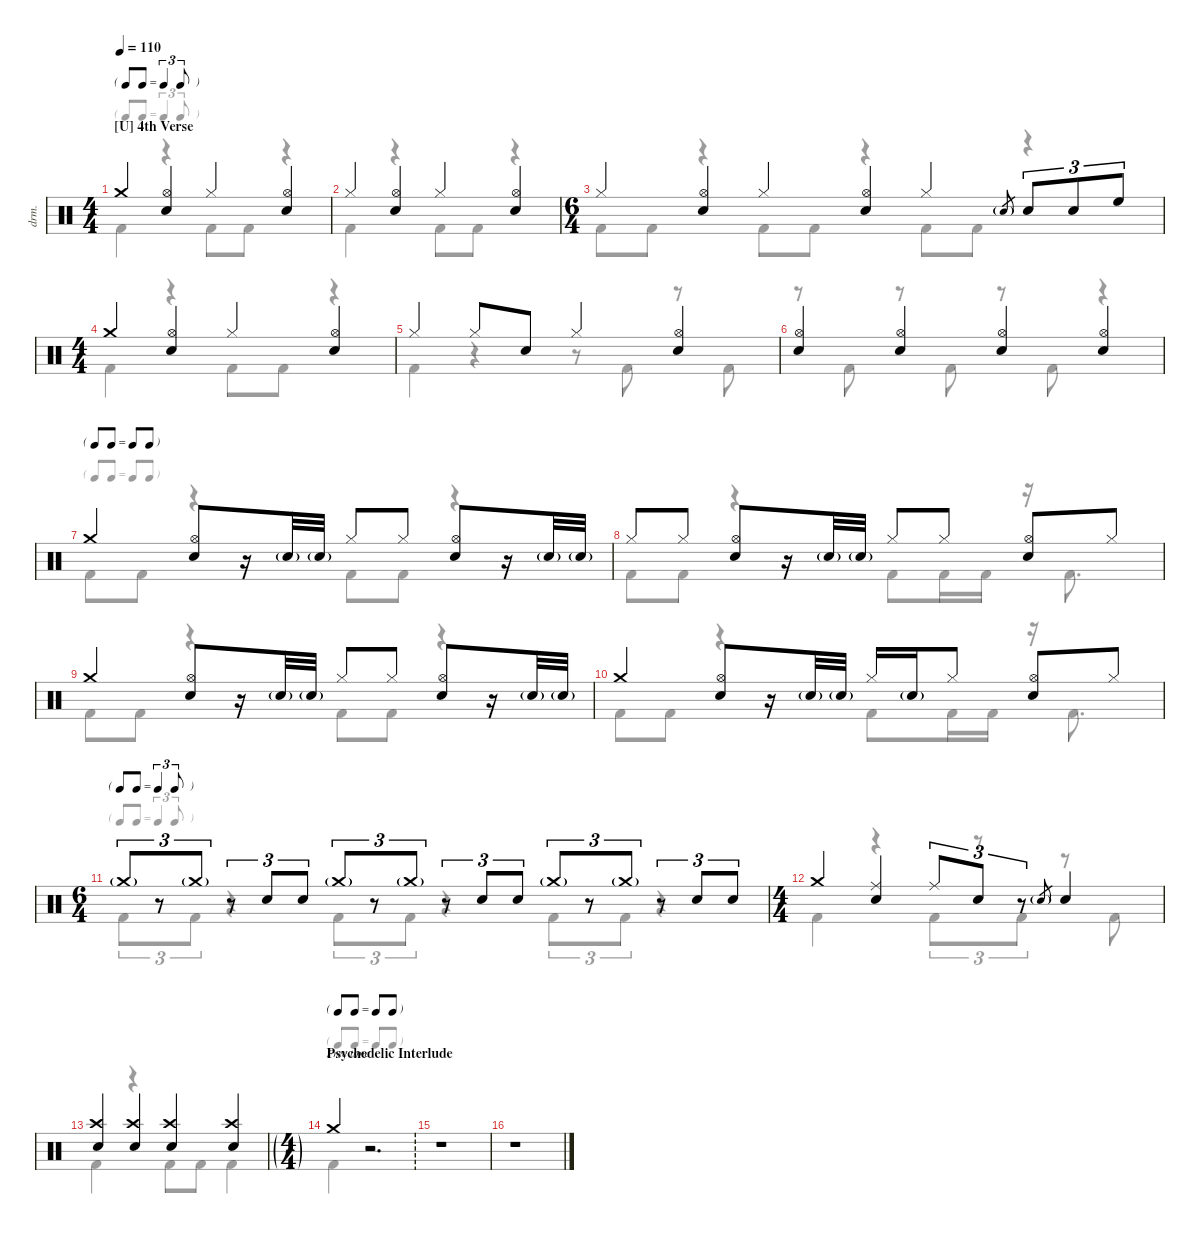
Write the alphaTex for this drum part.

\defaultSystemsLayout 4
\hideDynamics
\bracketExtendMode nobrackets
\track ("Drums" "drm.") {instrument percussion}
\staff {score}
\articulation defaults
\voice
\ts (4 4)
\tf triplet8th
\section ("U" "4th Verse")
\tempo 110
\clef neutral
\ks c "Crash medium (hit)".4{dy mf}
("Hi-Hat (open)" "Snare (hit) 2").4 "Hi-Hat (closed)".4 ("Hi-Hat (open)" "Snare (hit) 2").4 |
"Hi-Hat (closed)".4 ("Hi-Hat (open)" "Snare (hit) 2").4 "Hi-Hat (closed)".4 ("Hi-Hat (open)" "Snare (hit) 2").4 |
\ts (6 4)
\beaming (8 6 6)
\scale
0.512982 "Hi-Hat (closed)".4 ("Hi-Hat (open)" "Snare (hit) 2").4 "Hi-Hat (closed)".4 ("Hi-Hat (open)" "Snare (hit) 2").4 "Hi-Hat (closed)".4 "Snare (hit) 2"{g}.8{gr} "Snare (hit) 2".8{tu (3 2)} "Snare (hit) 2".8{tu (3 2)} "High Floor Tom (hit)".8{tu (3 2)} |
\ts (4 4)
\beaming (8 2 2 2 2)
\scale
0.487018 "Crash medium (hit)".4 ("Hi-Hat (open)" "Snare (hit) 2").4 "Hi-Hat (closed)".4 ("Hi-Hat (open)" "Snare (hit) 2").4 |
"Hi-Hat (closed)".4 "Hi-Hat (closed)".8 "Snare (hit) 2".8 "Hi-Hat (closed)".4 ("Hi-Hat (open)" "Snare (hit) 2").4 |
("Snare (hit) 2" "Hi-Hat (open)").4 ("Hi-Hat (open)" "Snare (hit) 2").4 ("Hi-Hat (open)" "Snare (hit) 2").4 ("Hi-Hat (open)" "Snare (hit) 2").4 |
\tf none "Crash medium (hit)".4
("Hi-Hat (open)" "Snare (hit) 2").8 r.16 "Snare (hit) 2"{g}.32 "Snare (hit) 2"{g}.32 "Hi-Hat (closed)".8 "Hi-Hat (closed)".8 ("Hi-Hat (open)" "Snare (hit) 2").8 r.16 "Snare (hit) 2"{g}.32 "Snare (hit) 2"{g}.32 |
"Hi-Hat (closed)".8 "Hi-Hat (closed)".8 ("Hi-Hat (open)" "Snare (hit) 2").8 r.16 "Snare (hit) 2"{g}.32 "Snare (hit) 2"{g}.32 "Hi-Hat (closed)".8 "Hi-Hat (closed)".8 ("Hi-Hat (open)" "Snare (hit) 2").8 "Hi-Hat (closed)".8 |
"Crash medium (hit)".4 ("Hi-Hat (open)" "Snare (hit) 2").8 r.16 "Snare (hit) 2"{g}.32 "Snare (hit) 2"{g}.32 "Hi-Hat (closed)".8 "Hi-Hat (closed)".8 ("Hi-Hat (open)" "Snare (hit) 2").8 r.16 "Snare (hit) 2"{g}.32 "Snare (hit) 2"{g}.32 |
"Crash medium (hit)".4 ("Hi-Hat (open)" "Snare (hit) 2").8 r.16 "Snare (hit) 2"{g}.32 "Snare (hit) 2"{g}.32 "Hi-Hat (closed)".16 "Snare (hit) 2"{g}.16 "Hi-Hat (closed)".8 ("Hi-Hat (open)" "Snare (hit) 2").8 "Hi-Hat (closed)".8 |
\ts (6 4)
\beaming (8 6 6)
\tf triplet8th "Crash medium (hit)"{g}.8{tu (3 2)}
r.8{tu (3 2)} "Crash medium (hit)"{g}.8{tu (3 2)} r.8{tu (3 2)} "Snare (hit) 2".8{tu (3 2)} "Snare (hit) 2".8{tu (3 2)} "Crash medium (hit)"{g}.8{tu (3 2)} r.8{tu (3 2)} "Crash medium (hit)"{g}.8{tu (3 2)} r.8{tu (3 2)} "Snare (hit) 2".8{tu (3 2)} "Snare (hit) 2".8{tu (3 2)} "Crash medium (hit)"{g}.8{tu (3 2)} r.8{tu (3 2)} "Crash medium (hit)"{g}.8{tu (3 2)} r.8{tu (3 2)} "Snare (hit) 2".8{tu (3 2)} "Snare (hit) 2".8{tu (3 2)} |
\ts (4 4)
\beaming (8 2 2 2 2)
"Crash medium (hit)".4 ("Ride (middle)" "Snare (hit) 2").4 "Ride (middle)".8{tu (3 2)} "Snare (hit) 2".8{tu (3 2)} r.8{tu (3 2)} "Snare (hit) 2"{g}.8{gr} "Snare (hit) 2".4 |
("Crash high (hit)" "Snare (hit) 2").4 ("Crash high (hit)" "Snare (hit) 2").4 ("Crash high (hit)" "Snare (hit) 2").4 ("Crash high (hit)" "Snare (hit) 2").4 |
\tf none
\ft
\section ("" "Psychedelic Interlude")
"Crash medium (hit)".4 r.2{d} |
r.1 |
r.1
\voice
\clef neutral
\ottava regular
\simile none
\ks c "Kick (hit) 2".4{dy mf}
r.4 "Kick (hit) 2".8 "Kick (hit) 2".8 r.4 |
"Kick (hit) 2".4 r.4 "Kick (hit) 2".8 "Kick (hit) 2".8 r.4 |
\scale
0.512982 "Kick (hit) 2".8 "Kick (hit) 2".8 r.4 "Kick (hit) 2".8 "Kick (hit) 2".8 r.4 "Kick (hit) 2".8 "Kick (hit) 2".8 r.4 |
\scale
0.487018 "Kick (hit) 2".4 r.4 "Kick (hit) 2".8 "Kick (hit) 2".8 r.4 |
"Kick (hit) 2".4 r.4 r.8 "Kick (hit) 2".8 r.8 "Kick (hit) 2".8 |
r.8 "Kick (hit) 2".8 r.8 "Kick (hit) 2".8 r.8 "Kick (hit) 2".8 r.4 |
"Kick (hit) 2".8 "Kick (hit) 2".8 r.4 "Kick (hit) 2".8 "Kick (hit) 2".8 r.4 |
"Kick (hit) 2".8 "Kick (hit) 2".8 r.4 "Kick (hit) 2".8 "Kick (hit) 2".16 "Kick (hit) 2".16 r.16 "Kick (hit) 2".8{d} |
"Kick (hit) 2".8 "Kick (hit) 2".8 r.4 "Kick (hit) 2".8 "Kick (hit) 2".8 r.4 |
"Kick (hit) 2".8 "Kick (hit) 2".8 r.4 "Kick (hit) 2".8 "Kick (hit) 2".16 "Kick (hit) 2".16 r.16 "Kick (hit) 2".8{d} |
"Kick (hit) 2".8{tu (3 2)} r.8{tu (3 2)} "Kick (hit) 2".8{tu (3 2)} r.4 "Kick (hit) 2".8{tu (3 2)} r.8{tu (3 2)} "Kick (hit) 2".8{tu (3 2)} r.4 "Kick (hit) 2".8{tu (3 2)} r.8{tu (3 2)} "Kick (hit) 2".8{tu (3 2)} r.4 |
"Kick (hit) 2".4 r.4 "Kick (hit) 2".8{tu (3 2)} r.8{tu (3 2)} "Kick (hit) 2".8{tu (3 2)} r.8 "Kick (hit) 2".8 |
"Kick (hit) 2".4 r.4 "Kick (hit) 2".8 "Kick (hit) 2".8 "Kick (hit) 2".4 |
"Kick (hit) 2".4 r.2{d} |
r.1 |
r.1
